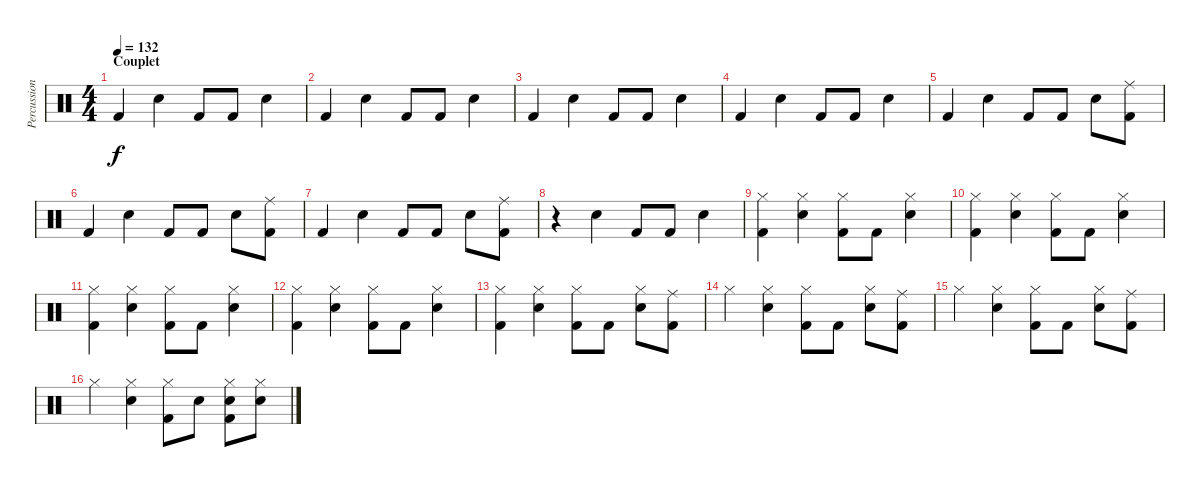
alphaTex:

\track ("Percussions" "Percussion") {instrument percussion}
\staff {score}
\articulation defaults
\ts (4 4)
\section ("" "Couplet")
\tempo 132
\clef neutral
\ks c "Kick (hit) 2".4{dy f} "Snare (hit) 2".4 "Kick (hit) 2".8 "Kick (hit) 2".8 "Snare (hit) 2".4
|
"Kick (hit) 2".4 "Snare (hit) 2".4 "Kick (hit) 2".8 "Kick (hit) 2".8 "Snare (hit) 2".4 |
"Kick (hit) 2".4 "Snare (hit) 2".4 "Kick (hit) 2".8 "Kick (hit) 2".8 "Snare (hit) 2".4 |
"Kick (hit) 2".4 "Snare (hit) 2".4 "Kick (hit) 2".8 "Kick (hit) 2".8 "Snare (hit) 2".4 |
"Kick (hit) 2".4 "Snare (hit) 2".4 "Kick (hit) 2".8 "Kick (hit) 2".8 "Snare (hit) 2".8 ("Ride (middle)" "Kick (hit) 2").8 |
"Kick (hit) 2".4 "Snare (hit) 2".4 "Kick (hit) 2".8 "Kick (hit) 2".8 "Snare (hit) 2".8 ("Ride (middle)" "Kick (hit) 2").8 |
"Kick (hit) 2".4 "Snare (hit) 2".4 "Kick (hit) 2".8 "Kick (hit) 2".8 "Snare (hit) 2".8 ("Ride (middle)" "Kick (hit) 2").8 |
r.4 "Snare (hit) 2".4 "Kick (hit) 2".8 "Kick (hit) 2".8 "Snare (hit) 2".4 |
("Hi-Hat (closed)" "Kick (hit) 2").4 ("Hi-Hat (closed)" "Snare (hit) 2").4 ("Hi-Hat (closed)" "Kick (hit) 2").8 "Kick (hit) 2".8 ("Hi-Hat (closed)" "Snare (hit) 2").4 |
("Hi-Hat (closed)" "Kick (hit) 2").4 ("Hi-Hat (closed)" "Snare (hit) 2").4 ("Hi-Hat (closed)" "Kick (hit) 2").8 "Kick (hit) 2".8 ("Hi-Hat (closed)" "Snare (hit) 2").4 |
("Hi-Hat (closed)" "Kick (hit) 2").4 ("Hi-Hat (closed)" "Snare (hit) 2").4 ("Hi-Hat (closed)" "Kick (hit) 2").8 "Kick (hit) 2".8 ("Hi-Hat (closed)" "Snare (hit) 2").4 |
("Hi-Hat (closed)" "Kick (hit) 2").4 ("Hi-Hat (closed)" "Snare (hit) 2").4 ("Hi-Hat (closed)" "Kick (hit) 2").8 "Kick (hit) 2".8 ("Hi-Hat (closed)" "Snare (hit) 2").4 |
("Hi-Hat (closed)" "Kick (hit) 2").4 ("Hi-Hat (closed)" "Snare (hit) 2").4 ("Hi-Hat (closed)" "Kick (hit) 2").8 "Kick (hit) 2".8 ("Hi-Hat (closed)" "Snare (hit) 2").8 ("Ride (middle)" "Kick (hit) 2").8 |
"Hi-Hat (closed)".4 ("Hi-Hat (closed)" "Snare (hit) 2").4 ("Hi-Hat (closed)" "Kick (hit) 2").8 "Kick (hit) 2".8 ("Hi-Hat (closed)" "Snare (hit) 2").8 ("Ride (middle)" "Kick (hit) 2").8 |
"Hi-Hat (closed)".4 ("Hi-Hat (closed)" "Snare (hit) 2").4 ("Hi-Hat (closed)" "Kick (hit) 2").8 "Kick (hit) 2".8 ("Hi-Hat (closed)" "Snare (hit) 2").8 ("Ride (middle)" "Kick (hit) 2").8 |
"Hi-Hat (closed)".4 ("Hi-Hat (closed)" "Snare (hit) 2").4 ("Hi-Hat (closed)" "Kick (hit) 2").8 "Snare (hit) 2".8 ("Hi-Hat (closed)" "Snare (hit) 2" "Kick (hit) 2").8 ("Hi-Hat (closed)" "Snare (hit) 2").8
